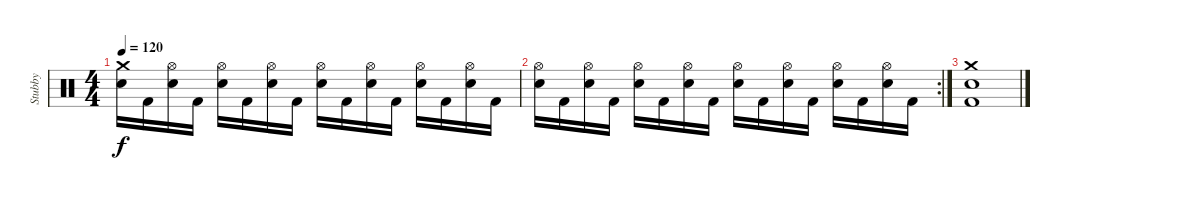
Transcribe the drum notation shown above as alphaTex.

\track ("Stubby" "Stubby") {instrument percussion}
\staff {score}
\articulation defaults
\ts (4 4)
\tempo 120
\clef neutral
\ks c
("Crash medium (hit)" "Electric Snare (hit)").16{dy f} "Kick (hit) 2".16 ("Hi-Hat (open)" "Electric Snare (hit)").16 "Kick (hit) 2".16 ("Hi-Hat (open)" "Electric Snare (hit)").16 "Kick (hit) 2".16 ("Hi-Hat (open)" "Electric Snare (hit)").16 "Kick (hit) 2".16 ("Hi-Hat (open)" "Electric Snare (hit)").16 "Kick (hit) 2".16 ("Hi-Hat (open)" "Electric Snare (hit)").16 "Kick (hit) 2".16 ("Hi-Hat (open)" "Electric Snare (hit)").16 "Kick (hit) 2".16 ("Hi-Hat (open)" "Electric Snare (hit)").16 "Kick (hit) 2".16 |
\rc 2
("Hi-Hat (open)" "Electric Snare (hit)").16 "Kick (hit) 2".16 ("Hi-Hat (open)" "Electric Snare (hit)").16 "Kick (hit) 2".16 ("Hi-Hat (open)" "Electric Snare (hit)").16 "Kick (hit) 2".16 ("Hi-Hat (open)" "Electric Snare (hit)").16 "Kick (hit) 2".16 ("Hi-Hat (open)" "Electric Snare (hit)").16 "Kick (hit) 2".16 ("Hi-Hat (open)" "Electric Snare (hit)").16 "Kick (hit) 2".16 ("Hi-Hat (open)" "Electric Snare (hit)").16 "Kick (hit) 2".16 ("Hi-Hat (open)" "Electric Snare (hit)").16 "Kick (hit) 2".16 |
("Crash medium (hit)" "Electric Snare (hit)" "Kick (hit) 2").1
